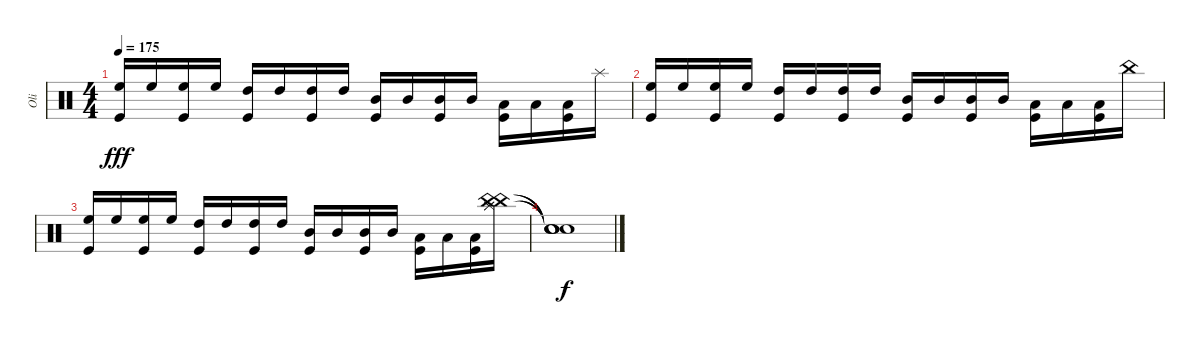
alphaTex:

\track ("Oli" "Oli") {instrument percussion}
\staff {score}
\articulation defaults
\ts (4 4)
\tempo 175
\clef neutral
\ks c
("High Floor Tom (hit)" "Kick (hit)").16{dy fff} "High Floor Tom (hit)".16 ("High Floor Tom (hit)" "Kick (hit)").16 "High Floor Tom (hit)".16 ("High Tom (hit)" "Kick (hit)").16 "High Tom (hit)".16 ("High Tom (hit)" "Kick (hit)").16 "High Tom (hit)".16 ("Mid Tom (hit)" "Kick (hit)").16 "Mid Tom (hit)".16 ("Mid Tom (hit)" "Kick (hit)").16 "Mid Tom (hit)".16 ("Low Tom (hit)" "Kick (hit)").16 "Low Tom (hit)".16 ("Low Tom (hit)" "Kick (hit)").16 "Splash (hit)".16 |
("High Floor Tom (hit)" "Kick (hit)").16 "High Floor Tom (hit)".16 ("High Floor Tom (hit)" "Kick (hit)").16 "High Floor Tom (hit)".16 ("High Tom (hit)" "Kick (hit)").16 "High Tom (hit)".16 ("High Tom (hit)" "Kick (hit)").16 "High Tom (hit)".16 ("Mid Tom (hit)" "Kick (hit)").16 "Mid Tom (hit)".16 ("Mid Tom (hit)" "Kick (hit)").16 "Mid Tom (hit)".16 ("Low Tom (hit)" "Kick (hit)").16 "Low Tom (hit)".16 ("Low Tom (hit)" "Kick (hit)").16 "China (hit)".16 |
("High Floor Tom (hit)" "Kick (hit)").16 "High Floor Tom (hit)".16 ("High Floor Tom (hit)" "Kick (hit)").16 "High Floor Tom (hit)".16 ("High Tom (hit)" "Kick (hit)").16 "High Tom (hit)".16 ("High Tom (hit)" "Kick (hit)").16 "High Tom (hit)".16 ("Mid Tom (hit)" "Kick (hit)").16 "Mid Tom (hit)".16 ("Mid Tom (hit)" "Kick (hit)").16 "Mid Tom (hit)".16 ("Low Tom (hit)" "Kick (hit)").16 "Low Tom (hit)".16 ("Low Tom (hit)" "Kick (hit)").16 ("Splash (hit)" "China (hit)" "Splash (hit)" "China (hit)").16 |
("Snare (hit)"{t} "Snare (hit)"{t} "Snare (hit)"{t} "Snare (hit)"{t}).1{dy f}
